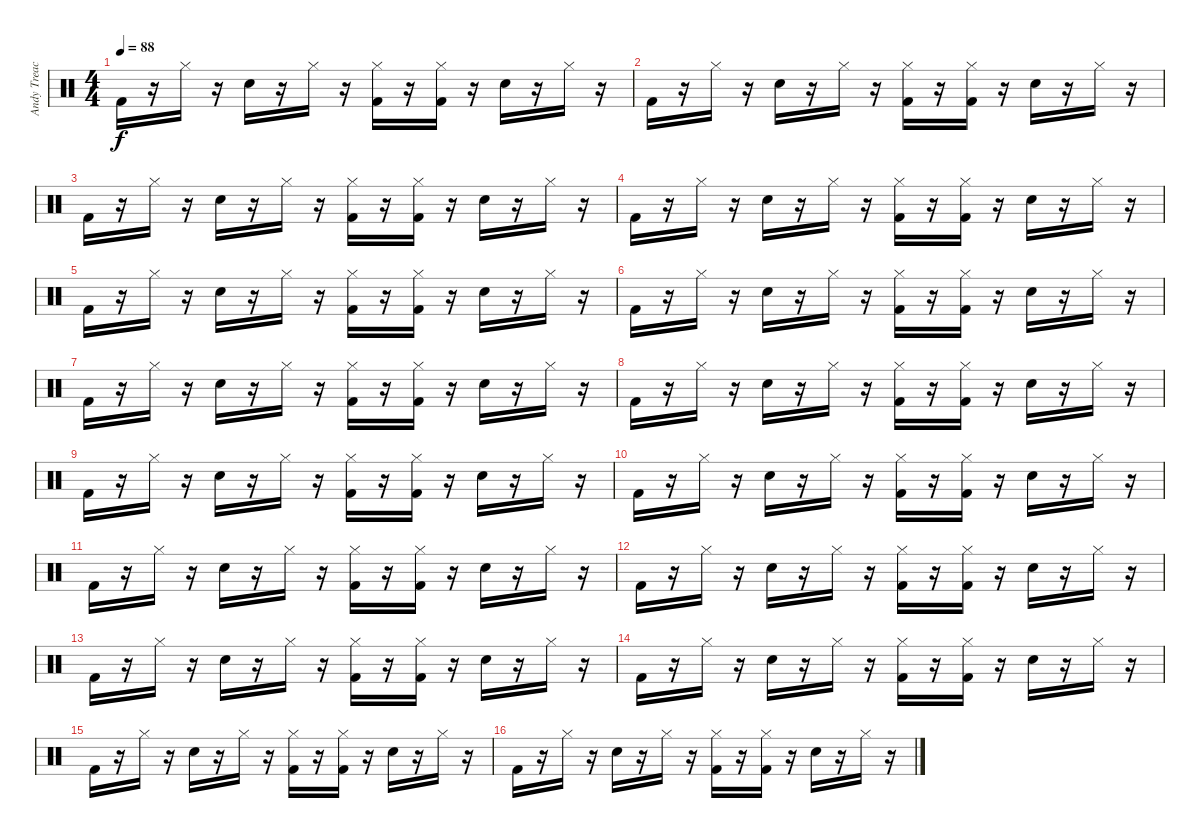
\track ("Andy Treacey" "Andy Treac") {instrument percussion}
\staff {score}
\articulation defaults
\ts (4 4)
\tempo 88
\clef neutral
\ks c "Kick (hit) 2".16{dy f}
r.16 "Hi-Hat (closed)".16 r.16 "Electric Snare (hit)".16 r.16 "Hi-Hat (closed)".16 r.16 ("Hi-Hat (closed)" "Kick (hit) 2").16 r.16 ("Hi-Hat (closed)" "Kick (hit) 2").16 r.16 "Electric Snare (hit)".16 r.16 "Hi-Hat (closed)".16 r.16 |
"Kick (hit) 2".16 r.16 "Hi-Hat (closed)".16 r.16 "Electric Snare (hit)".16 r.16 "Hi-Hat (closed)".16 r.16 ("Hi-Hat (closed)" "Kick (hit) 2").16 r.16 ("Hi-Hat (closed)" "Kick (hit) 2").16 r.16 "Electric Snare (hit)".16 r.16 "Hi-Hat (closed)".16 r.16 |
"Kick (hit) 2".16 r.16 "Hi-Hat (closed)".16 r.16 "Electric Snare (hit)".16 r.16 "Hi-Hat (closed)".16 r.16 ("Hi-Hat (closed)" "Kick (hit) 2").16 r.16 ("Hi-Hat (closed)" "Kick (hit) 2").16 r.16 "Electric Snare (hit)".16 r.16 "Hi-Hat (closed)".16 r.16 |
"Kick (hit) 2".16 r.16 "Hi-Hat (closed)".16 r.16 "Electric Snare (hit)".16 r.16 "Hi-Hat (closed)".16 r.16 ("Hi-Hat (closed)" "Kick (hit) 2").16 r.16 ("Hi-Hat (closed)" "Kick (hit) 2").16 r.16 "Electric Snare (hit)".16 r.16 "Hi-Hat (closed)".16 r.16 |
"Kick (hit) 2".16 r.16 "Hi-Hat (closed)".16 r.16 "Electric Snare (hit)".16 r.16 "Hi-Hat (closed)".16 r.16 ("Hi-Hat (closed)" "Kick (hit) 2").16 r.16 ("Hi-Hat (closed)" "Kick (hit) 2").16 r.16 "Electric Snare (hit)".16 r.16 "Hi-Hat (closed)".16 r.16 |
"Kick (hit) 2".16 r.16 "Hi-Hat (closed)".16 r.16 "Electric Snare (hit)".16 r.16 "Hi-Hat (closed)".16 r.16 ("Hi-Hat (closed)" "Kick (hit) 2").16 r.16 ("Hi-Hat (closed)" "Kick (hit) 2").16 r.16 "Electric Snare (hit)".16 r.16 "Hi-Hat (closed)".16 r.16 |
"Kick (hit) 2".16 r.16 "Hi-Hat (closed)".16 r.16 "Electric Snare (hit)".16 r.16 "Hi-Hat (closed)".16 r.16 ("Hi-Hat (closed)" "Kick (hit) 2").16 r.16 ("Hi-Hat (closed)" "Kick (hit) 2").16 r.16 "Electric Snare (hit)".16 r.16 "Hi-Hat (closed)".16 r.16 |
"Kick (hit) 2".16 r.16 "Hi-Hat (closed)".16 r.16 "Electric Snare (hit)".16 r.16 "Hi-Hat (closed)".16 r.16 ("Hi-Hat (closed)" "Kick (hit) 2").16 r.16 ("Hi-Hat (closed)" "Kick (hit) 2").16 r.16 "Electric Snare (hit)".16 r.16 "Hi-Hat (closed)".16 r.16 |
"Kick (hit) 2".16 r.16 "Hi-Hat (closed)".16 r.16 "Electric Snare (hit)".16 r.16 "Hi-Hat (closed)".16 r.16 ("Hi-Hat (closed)" "Kick (hit) 2").16 r.16 ("Hi-Hat (closed)" "Kick (hit) 2").16 r.16 "Electric Snare (hit)".16 r.16 "Hi-Hat (closed)".16 r.16 |
"Kick (hit) 2".16 r.16 "Hi-Hat (closed)".16 r.16 "Electric Snare (hit)".16 r.16 "Hi-Hat (closed)".16 r.16 ("Hi-Hat (closed)" "Kick (hit) 2").16 r.16 ("Hi-Hat (closed)" "Kick (hit) 2").16 r.16 "Electric Snare (hit)".16 r.16 "Hi-Hat (closed)".16 r.16 |
"Kick (hit) 2".16 r.16 "Hi-Hat (closed)".16 r.16 "Electric Snare (hit)".16 r.16 "Hi-Hat (closed)".16 r.16 ("Hi-Hat (closed)" "Kick (hit) 2").16 r.16 ("Hi-Hat (closed)" "Kick (hit) 2").16 r.16 "Electric Snare (hit)".16 r.16 "Hi-Hat (closed)".16 r.16 |
"Kick (hit) 2".16 r.16 "Hi-Hat (closed)".16 r.16 "Electric Snare (hit)".16 r.16 "Hi-Hat (closed)".16 r.16 ("Hi-Hat (closed)" "Kick (hit) 2").16 r.16 ("Hi-Hat (closed)" "Kick (hit) 2").16 r.16 "Electric Snare (hit)".16 r.16 "Hi-Hat (closed)".16 r.16 |
"Kick (hit) 2".16 r.16 "Hi-Hat (closed)".16 r.16 "Electric Snare (hit)".16 r.16 "Hi-Hat (closed)".16 r.16 ("Hi-Hat (closed)" "Kick (hit) 2").16 r.16 ("Hi-Hat (closed)" "Kick (hit) 2").16 r.16 "Electric Snare (hit)".16 r.16 "Hi-Hat (closed)".16 r.16 |
"Kick (hit) 2".16 r.16 "Hi-Hat (closed)".16 r.16 "Electric Snare (hit)".16 r.16 "Hi-Hat (closed)".16 r.16 ("Hi-Hat (closed)" "Kick (hit) 2").16 r.16 ("Hi-Hat (closed)" "Kick (hit) 2").16 r.16 "Electric Snare (hit)".16 r.16 "Hi-Hat (closed)".16 r.16 |
"Kick (hit) 2".16 r.16 "Hi-Hat (closed)".16 r.16 "Electric Snare (hit)".16 r.16 "Hi-Hat (closed)".16 r.16 ("Hi-Hat (closed)" "Kick (hit) 2").16 r.16 ("Hi-Hat (closed)" "Kick (hit) 2").16 r.16 "Electric Snare (hit)".16 r.16 "Hi-Hat (closed)".16 r.16 |
"Kick (hit) 2".16{volume 0} r.16 "Hi-Hat (closed)".16 r.16 "Electric Snare (hit)".16 r.16 "Hi-Hat (closed)".16 r.16 ("Hi-Hat (closed)" "Kick (hit) 2").16 r.16 ("Hi-Hat (closed)" "Kick (hit) 2").16 r.16 "Electric Snare (hit)".16 r.16 "Hi-Hat (closed)".16 r.16
